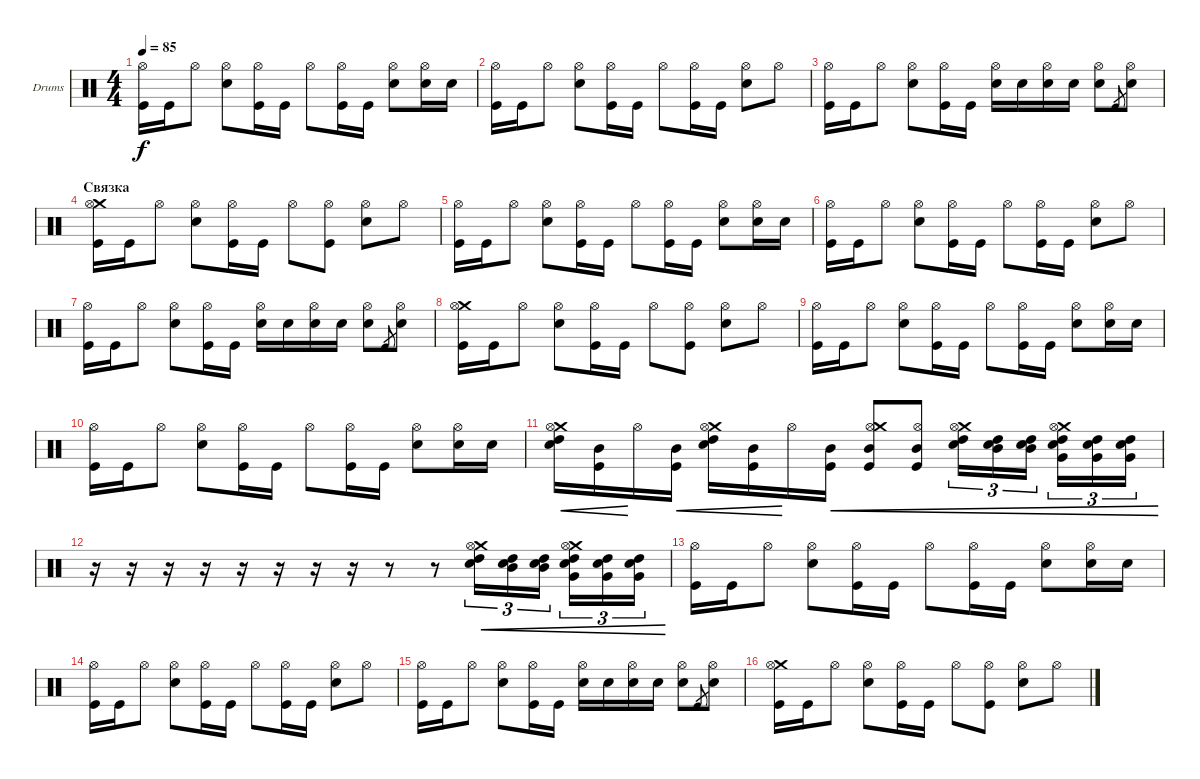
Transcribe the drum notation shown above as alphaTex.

\defaultSystemsLayout 4
\bracketExtendMode groupsimilarinstruments
\firstSystemTrackNameOrientation horizontal
\otherSystemsTrackNameOrientation horizontal
\track ("Drumkit" "Drums") {instrument percussion}
\staff {score}
\articulation defaults
\ts (4 4)
\tempo 85
\clef neutral
\ks c
("Kick (hit)" "Hi-Hat (open)").16{dy f} "Kick (hit)".16 "Hi-Hat (open)".8 ("Snare (hit) 2" "Hi-Hat (open)").8 ("Kick (hit)" "Hi-Hat (open)").16 "Kick (hit)".16 "Hi-Hat (open)".8 ("Kick (hit)" "Hi-Hat (open)").16 "Kick (hit)".16 ("Snare (hit) 2" "Hi-Hat (open)").8 ("Hi-Hat (open)" "Snare (hit) 2").16 "Snare (hit) 2".16 |
("Kick (hit)" "Hi-Hat (open)").16 "Kick (hit)".16 "Hi-Hat (open)".8 ("Snare (hit) 2" "Hi-Hat (open)").8 ("Kick (hit)" "Hi-Hat (open)").16 "Kick (hit)".16 "Hi-Hat (open)".8 ("Kick (hit)" "Hi-Hat (open)").16 "Kick (hit)".16 ("Snare (hit) 2" "Hi-Hat (open)").8 "Hi-Hat (open)".8 |
("Kick (hit)" "Hi-Hat (open)").16 "Kick (hit)".16 "Hi-Hat (open)".8 ("Snare (hit) 2" "Hi-Hat (open)").8 ("Kick (hit)" "Hi-Hat (open)").16 "Kick (hit)".16 ("Snare (hit) 2" "Hi-Hat (open)").16 "Snare (hit) 2".16 ("Snare (hit) 2" "Hi-Hat (open)").16 "Snare (hit) 2".16 ("Snare (hit) 2" "Hi-Hat (open)").8 "Kick (hit)".8{gr} ("Snare (hit) 2" "Hi-Hat (open)").8 |
\section ("" "Связка")
("Kick (hit)" "Crash medium (hit)" "Hi-Hat (open)").16 "Kick (hit)".16 "Hi-Hat (open)".8 ("Snare (hit) 2" "Hi-Hat (open)").8 ("Kick (hit)" "Hi-Hat (open)").16 "Kick (hit)".16 "Hi-Hat (open)".8 ("Kick (hit)" "Hi-Hat (open)").8 ("Snare (hit) 2" "Hi-Hat (open)").8 "Hi-Hat (open)".8 |
("Kick (hit)" "Hi-Hat (open)").16 "Kick (hit)".16 "Hi-Hat (open)".8 ("Snare (hit) 2" "Hi-Hat (open)").8 ("Kick (hit)" "Hi-Hat (open)").16 "Kick (hit)".16 "Hi-Hat (open)".8 ("Kick (hit)" "Hi-Hat (open)").16 "Kick (hit)".16 ("Snare (hit) 2" "Hi-Hat (open)").8 ("Hi-Hat (open)" "Snare (hit) 2").16 "Snare (hit) 2".16 |
("Kick (hit)" "Hi-Hat (open)").16 "Kick (hit)".16 "Hi-Hat (open)".8 ("Snare (hit) 2" "Hi-Hat (open)").8 ("Kick (hit)" "Hi-Hat (open)").16 "Kick (hit)".16 "Hi-Hat (open)".8 ("Kick (hit)" "Hi-Hat (open)").16 "Kick (hit)".16 ("Snare (hit) 2" "Hi-Hat (open)").8 "Hi-Hat (open)".8 |
("Kick (hit)" "Hi-Hat (open)").16 "Kick (hit)".16 "Hi-Hat (open)".8 ("Snare (hit) 2" "Hi-Hat (open)").8 ("Kick (hit)" "Hi-Hat (open)").16 "Kick (hit)".16 ("Snare (hit) 2" "Hi-Hat (open)").16 "Snare (hit) 2".16 ("Snare (hit) 2" "Hi-Hat (open)").16 "Snare (hit) 2".16 ("Snare (hit) 2" "Hi-Hat (open)").8 "Kick (hit)".8{gr} ("Snare (hit) 2" "Hi-Hat (open)").8 |
("Kick (hit)" "Crash medium (hit)" "Hi-Hat (open)").16 "Kick (hit)".16 "Hi-Hat (open)".8 ("Snare (hit) 2" "Hi-Hat (open)").8 ("Kick (hit)" "Hi-Hat (open)").16 "Kick (hit)".16 "Hi-Hat (open)".8 ("Kick (hit)" "Hi-Hat (open)").8 ("Snare (hit) 2" "Hi-Hat (open)").8 "Hi-Hat (open)".8 |
("Kick (hit)" "Hi-Hat (open)").16 "Kick (hit)".16 "Hi-Hat (open)".8 ("Snare (hit) 2" "Hi-Hat (open)").8 ("Kick (hit)" "Hi-Hat (open)").16 "Kick (hit)".16 "Hi-Hat (open)".8 ("Kick (hit)" "Hi-Hat (open)").16 "Kick (hit)".16 ("Snare (hit) 2" "Hi-Hat (open)").8 ("Hi-Hat (open)" "Snare (hit) 2").16 "Snare (hit) 2".16 |
("Kick (hit)" "Hi-Hat (open)").16 "Kick (hit)".16 "Hi-Hat (open)".8 ("Snare (hit) 2" "Hi-Hat (open)").8 ("Kick (hit)" "Hi-Hat (open)").16 "Kick (hit)".16 "Hi-Hat (open)".8 ("Kick (hit)" "Hi-Hat (open)").16 "Kick (hit)".16 ("Snare (hit) 2" "Hi-Hat (open)").8 ("Hi-Hat (open)" "Snare (hit) 2").16 "Snare (hit) 2".16 |
("Snare (hit) 2" "High Tom (hit)" "Crash medium (hit)" "Hi-Hat (open)").16{cre} ("Kick (hit)" "Mid Tom (hit)").16{cre} "Hi-Hat (open)".16 ("Kick (hit)" "Mid Tom (hit)").16{cre} ("Snare (hit) 2" "High Tom (hit)" "Crash medium (hit)" "Hi-Hat (open)").16{cre} ("Kick (hit)" "Mid Tom (hit)").16{cre} "Hi-Hat (open)".16 ("Kick (hit)" "Mid Tom (hit)").16{cre} ("Kick (hit)" "Mid Tom (hit)" "Hi-Hat (open)" "Crash medium (hit)").8{cre} ("Kick (hit)" "Mid Tom (hit)" "Hi-Hat (open)").8{cre} ("Snare (hit) 2" "High Tom (hit)" "Crash medium (hit)" "Hi-Hat (open)").16{tu (3 2) cre} ("Snare (hit) 2" "High Tom (hit)" "Mid Tom (hit)").16{tu (3 2) cre} ("Snare (hit) 2" "High Tom (hit)" "Mid Tom (hit)").16{tu (3 2) cre} ("Snare (hit) 2" "High Tom (hit)" "Very Low Tom (hit)" "Crash medium (hit)" "Hi-Hat (open)").16{tu (3 2) cre} ("High Tom (hit)" "Snare (hit) 2" "Very Low Tom (hit)").16{tu (3 2) cre} ("High Tom (hit)" "Snare (hit) 2" "Very Low Tom (hit)").16{tu (3 2) cre} |
r.16 r.16 r.16 r.16 r.16 r.16 r.16 r.16 r.8 r.8 ("Snare (hit) 2" "High Tom (hit)" "Crash medium (hit)" "Hi-Hat (open)").16{tu (3 2) cre} ("Snare (hit) 2" "High Tom (hit)" "Mid Tom (hit)").16{tu (3 2) cre} ("Snare (hit) 2" "High Tom (hit)" "Mid Tom (hit)").16{tu (3 2) cre} ("Snare (hit) 2" "High Tom (hit)" "Very Low Tom (hit)" "Crash medium (hit)" "Hi-Hat (open)").16{tu (3 2) cre} ("High Tom (hit)" "Snare (hit) 2" "Very Low Tom (hit)").16{tu (3 2) cre} ("High Tom (hit)" "Snare (hit) 2" "Very Low Tom (hit)").16{tu (3 2) cre} |
("Kick (hit)" "Hi-Hat (open)").16 "Kick (hit)".16 "Hi-Hat (open)".8 ("Snare (hit) 2" "Hi-Hat (open)").8 ("Kick (hit)" "Hi-Hat (open)").16 "Kick (hit)".16 "Hi-Hat (open)".8 ("Kick (hit)" "Hi-Hat (open)").16 "Kick (hit)".16 ("Snare (hit) 2" "Hi-Hat (open)").8 ("Hi-Hat (open)" "Snare (hit) 2").16 "Snare (hit) 2".16 |
("Kick (hit)" "Hi-Hat (open)").16 "Kick (hit)".16 "Hi-Hat (open)".8 ("Snare (hit) 2" "Hi-Hat (open)").8 ("Kick (hit)" "Hi-Hat (open)").16 "Kick (hit)".16 "Hi-Hat (open)".8 ("Kick (hit)" "Hi-Hat (open)").16 "Kick (hit)".16 ("Snare (hit) 2" "Hi-Hat (open)").8 "Hi-Hat (open)".8 |
("Kick (hit)" "Hi-Hat (open)").16 "Kick (hit)".16 "Hi-Hat (open)".8 ("Snare (hit) 2" "Hi-Hat (open)").8 ("Kick (hit)" "Hi-Hat (open)").16 "Kick (hit)".16 ("Snare (hit) 2" "Hi-Hat (open)").16 "Snare (hit) 2".16 ("Snare (hit) 2" "Hi-Hat (open)").16 "Snare (hit) 2".16 ("Snare (hit) 2" "Hi-Hat (open)").8 "Kick (hit)".8{gr} ("Snare (hit) 2" "Hi-Hat (open)").8 |
("Kick (hit)" "Crash medium (hit)" "Hi-Hat (open)").16 "Kick (hit)".16 "Hi-Hat (open)".8 ("Snare (hit) 2" "Hi-Hat (open)").8 ("Kick (hit)" "Hi-Hat (open)").16 "Kick (hit)".16 "Hi-Hat (open)".8 ("Kick (hit)" "Hi-Hat (open)").8 ("Snare (hit) 2" "Hi-Hat (open)").8 "Hi-Hat (open)".8
